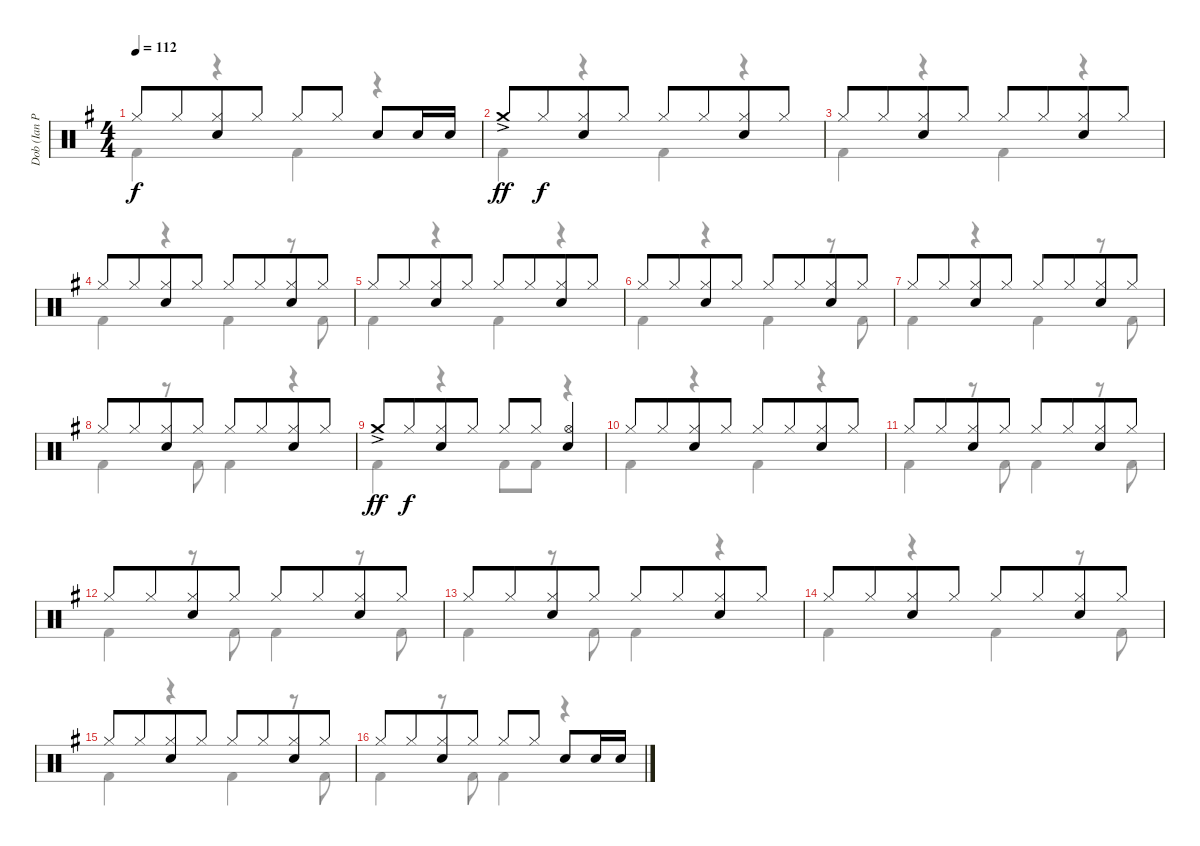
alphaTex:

\track ("Dob (Ian Paice)" "Dob (Ian P") {instrument percussion}
\staff {score}
\articulation defaults
\voice
\ts (4 4)
\tempo 112
\clef neutral
\ks g "Hi-Hat (closed)".8{dy f} "Hi-Hat (closed)".8{beam merge}
("Hi-Hat (closed)" "Electric Snare (hit)").8 "Hi-Hat (closed)".8 "Hi-Hat (closed)".8 "Hi-Hat (closed)".8 "Electric Snare (hit)".8 "Electric Snare (hit)".16 "Electric Snare (hit)".16 |
"Crash medium (hit)"{ac}.8{dy ff} "Hi-Hat (closed)".8{dy f beam merge} ("Hi-Hat (closed)" "Electric Snare (hit)").8 "Hi-Hat (closed)".8 "Hi-Hat (closed)".8 "Hi-Hat (closed)".8{beam merge} ("Hi-Hat (closed)" "Electric Snare (hit)").8 "Hi-Hat (closed)".8 |
"Hi-Hat (closed)".8 "Hi-Hat (closed)".8{beam merge} ("Hi-Hat (closed)" "Electric Snare (hit)").8 "Hi-Hat (closed)".8 "Hi-Hat (closed)".8 "Hi-Hat (closed)".8{beam merge} ("Hi-Hat (closed)" "Electric Snare (hit)").8 "Hi-Hat (closed)".8 |
"Hi-Hat (closed)".8 "Hi-Hat (closed)".8{beam merge} ("Hi-Hat (closed)" "Electric Snare (hit)").8 "Hi-Hat (closed)".8 "Hi-Hat (closed)".8 "Hi-Hat (closed)".8{beam merge} ("Hi-Hat (closed)" "Electric Snare (hit)").8 "Hi-Hat (closed)".8 |
"Hi-Hat (closed)".8 "Hi-Hat (closed)".8{beam merge} ("Hi-Hat (closed)" "Electric Snare (hit)").8 "Hi-Hat (closed)".8 "Hi-Hat (closed)".8 "Hi-Hat (closed)".8{beam merge} ("Hi-Hat (closed)" "Electric Snare (hit)").8 "Hi-Hat (closed)".8 |
"Hi-Hat (closed)".8 "Hi-Hat (closed)".8{beam merge} ("Hi-Hat (closed)" "Electric Snare (hit)").8 "Hi-Hat (closed)".8 "Hi-Hat (closed)".8 "Hi-Hat (closed)".8{beam merge} ("Hi-Hat (closed)" "Electric Snare (hit)").8 "Hi-Hat (closed)".8 |
"Hi-Hat (closed)".8 "Hi-Hat (closed)".8{beam merge} ("Hi-Hat (closed)" "Electric Snare (hit)").8 "Hi-Hat (closed)".8 "Hi-Hat (closed)".8 "Hi-Hat (closed)".8{beam merge} ("Hi-Hat (closed)" "Electric Snare (hit)").8 "Hi-Hat (closed)".8 |
"Hi-Hat (closed)".8 "Hi-Hat (closed)".8{beam merge} ("Hi-Hat (closed)" "Electric Snare (hit)").8 "Hi-Hat (closed)".8 "Hi-Hat (closed)".8 "Hi-Hat (closed)".8{beam merge} ("Hi-Hat (closed)" "Electric Snare (hit)").8 "Hi-Hat (closed)".8 |
"Crash medium (hit)"{ac}.8{dy ff} "Hi-Hat (closed)".8{dy f beam merge} ("Hi-Hat (closed)" "Electric Snare (hit)").8 "Hi-Hat (closed)".8 "Hi-Hat (closed)".8 "Hi-Hat (closed)".8 ("Hi-Hat (open)" "Electric Snare (hit)").4 |
"Hi-Hat (closed)".8 "Hi-Hat (closed)".8{beam merge} ("Hi-Hat (closed)" "Electric Snare (hit)").8 "Hi-Hat (closed)".8 "Hi-Hat (closed)".8 "Hi-Hat (closed)".8{beam merge} ("Hi-Hat (closed)" "Electric Snare (hit)").8 "Hi-Hat (closed)".8 |
"Hi-Hat (closed)".8 "Hi-Hat (closed)".8{beam merge} ("Hi-Hat (closed)" "Electric Snare (hit)").8 "Hi-Hat (closed)".8 "Hi-Hat (closed)".8 "Hi-Hat (closed)".8{beam merge} ("Hi-Hat (closed)" "Electric Snare (hit)").8 "Hi-Hat (closed)".8 |
"Hi-Hat (closed)".8 "Hi-Hat (closed)".8{beam merge} ("Hi-Hat (closed)" "Electric Snare (hit)").8 "Hi-Hat (closed)".8 "Hi-Hat (closed)".8 "Hi-Hat (closed)".8{beam merge} ("Hi-Hat (closed)" "Electric Snare (hit)").8 "Hi-Hat (closed)".8 |
"Hi-Hat (closed)".8 "Hi-Hat (closed)".8{beam merge} ("Hi-Hat (closed)" "Electric Snare (hit)").8 "Hi-Hat (closed)".8 "Hi-Hat (closed)".8 "Hi-Hat (closed)".8{beam merge} ("Hi-Hat (closed)" "Electric Snare (hit)").8 "Hi-Hat (closed)".8 |
"Hi-Hat (closed)".8 "Hi-Hat (closed)".8{beam merge} ("Hi-Hat (closed)" "Electric Snare (hit)").8 "Hi-Hat (closed)".8 "Hi-Hat (closed)".8 "Hi-Hat (closed)".8{beam merge} ("Hi-Hat (closed)" "Electric Snare (hit)").8 "Hi-Hat (closed)".8 |
"Hi-Hat (closed)".8 "Hi-Hat (closed)".8{beam merge} ("Hi-Hat (closed)" "Electric Snare (hit)").8 "Hi-Hat (closed)".8 "Hi-Hat (closed)".8 "Hi-Hat (closed)".8{beam merge} ("Hi-Hat (closed)" "Electric Snare (hit)").8 "Hi-Hat (closed)".8 |
"Hi-Hat (closed)".8 "Hi-Hat (closed)".8{beam merge} ("Hi-Hat (closed)" "Electric Snare (hit)").8 "Hi-Hat (closed)".8 "Hi-Hat (closed)".8 "Hi-Hat (closed)".8 "Electric Snare (hit)".8 "Electric Snare (hit)".16 "Electric Snare (hit)".16
\voice
\clef neutral
\ottava regular
\simile none
\ks g "Kick (hit) 2".4{dy f}
r.4 "Kick (hit) 2".4 r.4 |
"Kick (hit) 2".4 r.4 "Kick (hit) 2".4 r.4 |
"Kick (hit) 2".4 r.4 "Kick (hit) 2".4 r.4 |
"Kick (hit) 2".4 r.4 "Kick (hit) 2".4 r.8 "Kick (hit) 2".8 |
"Kick (hit) 2".4 r.4 "Kick (hit) 2".4 r.4 |
"Kick (hit) 2".4 r.4 "Kick (hit) 2".4 r.8 "Kick (hit) 2".8 |
"Kick (hit) 2".4 r.4 "Kick (hit) 2".4 r.8 "Kick (hit) 2".8 |
"Kick (hit) 2".4 r.8 "Kick (hit) 2".8 "Kick (hit) 2".4 r.4 |
"Kick (hit) 2".4 r.4 "Kick (hit) 2".8 "Kick (hit) 2".8 r.4 |
"Kick (hit) 2".4 r.4 "Kick (hit) 2".4 r.4 |
"Kick (hit) 2".4 r.8 "Kick (hit) 2".8 "Kick (hit) 2".4 r.8 "Kick (hit) 2".8 |
"Kick (hit) 2".4 r.8 "Kick (hit) 2".8 "Kick (hit) 2".4 r.8 "Kick (hit) 2".8 |
"Kick (hit) 2".4 r.8 "Kick (hit) 2".8 "Kick (hit) 2".4 r.4 |
"Kick (hit) 2".4 r.4 "Kick (hit) 2".4 r.8 "Kick (hit) 2".8 |
"Kick (hit) 2".4 r.4 "Kick (hit) 2".4 r.8 "Kick (hit) 2".8 |
"Kick (hit) 2".4 r.8 "Kick (hit) 2".8 "Kick (hit) 2".4 r.4
